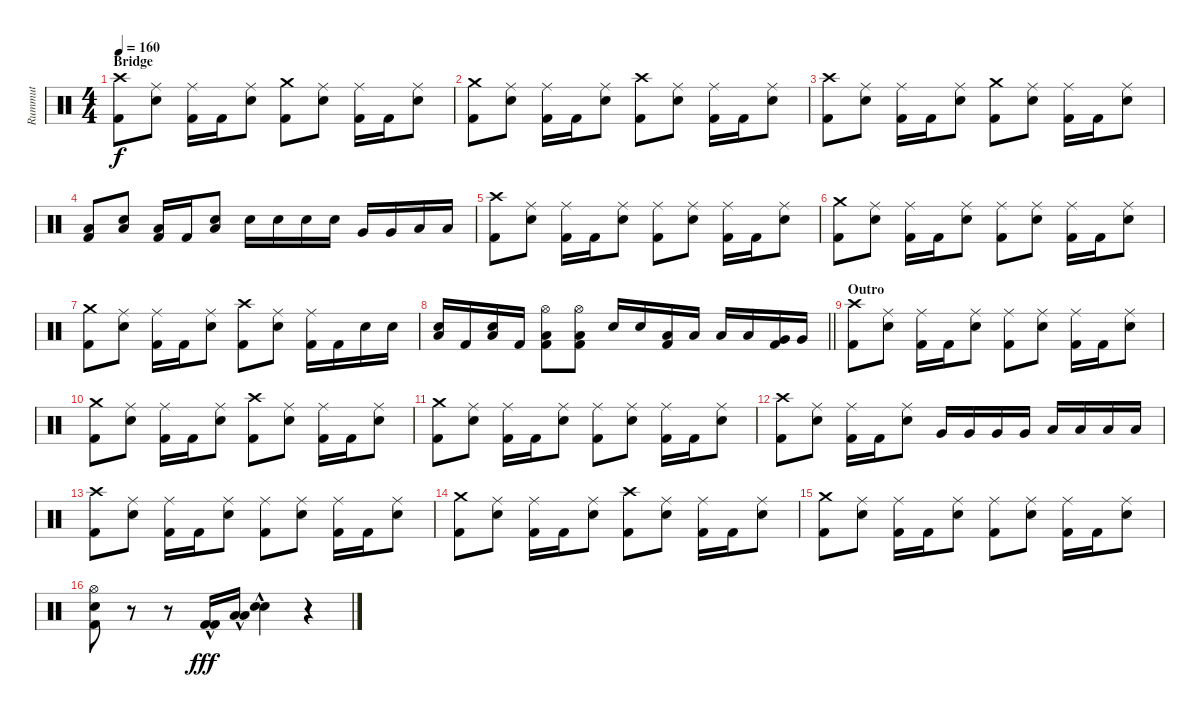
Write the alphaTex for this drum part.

\track ("Rummut" "Rummut") {instrument percussion}
\staff {score}
\articulation defaults
\ts (4 4)
\section ("" "Bridge")
\tempo 160
\clef neutral
\ks c
("Crash high (hit)" "Kick (hit) 2").8{dy f} ("Ride (middle)" "Snare (hit) 2").8 ("Ride (middle)" "Kick (hit) 2").16 "Kick (hit) 2".16 ("Ride (middle)" "Snare (hit) 2").8 ("Crash medium (hit)" "Kick (hit) 2").8 ("Ride (middle)" "Snare (hit) 2").8 ("Ride (middle)" "Kick (hit) 2").16 "Kick (hit) 2".16 ("Ride (middle)" "Snare (hit) 2").8 |
("Crash medium (hit)" "Kick (hit) 2").8 ("Ride (middle)" "Snare (hit) 2").8 ("Ride (middle)" "Kick (hit) 2").16 "Kick (hit) 2".16 ("Ride (middle)" "Snare (hit) 2").8 ("Crash high (hit)" "Kick (hit) 2").8 ("Ride (middle)" "Snare (hit) 2").8 ("Ride (middle)" "Kick (hit) 2").16 "Kick (hit) 2".16 ("Ride (middle)" "Snare (hit) 2").8 |
("Crash high (hit)" "Kick (hit) 2").8 ("Ride (middle)" "Snare (hit) 2").8 ("Ride (middle)" "Kick (hit) 2").16 "Kick (hit) 2".16 ("Ride (middle)" "Snare (hit) 2").8 ("Crash medium (hit)" "Kick (hit) 2").8 ("Ride (middle)" "Snare (hit) 2").8 ("Ride (middle)" "Kick (hit) 2").16 "Kick (hit) 2".16 ("Ride (middle)" "Snare (hit) 2").8 |
("Low Floor Tom (hit)" "Kick (hit) 2").8 ("Low Floor Tom (hit)" "Snare (hit) 2").8 ("Low Floor Tom (hit)" "Kick (hit) 2").16 "Kick (hit) 2".16 ("Low Floor Tom (hit)" "Snare (hit) 2").8 "Snare (hit) 2".16 "Snare (hit) 2".16 "Snare (hit) 2".16 "Snare (hit) 2".16 "Very Low Tom (hit)".16 "Very Low Tom (hit)".16 "Low Floor Tom (hit)".16 "Low Floor Tom (hit)".16 |
("Crash high (hit)" "Kick (hit) 2").8 ("Ride (middle)" "Snare (hit) 2").8 ("Ride (middle)" "Kick (hit) 2").16 "Kick (hit) 2".16 ("Ride (middle)" "Snare (hit) 2").8 ("Ride (middle)" "Kick (hit) 2").8 ("Ride (middle)" "Snare (hit) 2").8 ("Ride (middle)" "Kick (hit) 2").16 "Kick (hit) 2".16 ("Ride (middle)" "Snare (hit) 2").8 |
("Crash medium (hit)" "Kick (hit) 2").8 ("Ride (middle)" "Snare (hit) 2").8 ("Ride (middle)" "Kick (hit) 2").16 "Kick (hit) 2".16 ("Ride (middle)" "Snare (hit) 2").8 ("Ride (middle)" "Kick (hit) 2").8 ("Ride (middle)" "Snare (hit) 2").8 ("Ride (middle)" "Kick (hit) 2").16 "Kick (hit) 2".16 ("Ride (middle)" "Snare (hit) 2").8 |
("Crash medium (hit)" "Kick (hit) 2").8 ("Ride (middle)" "Snare (hit) 2").8 ("Ride (middle)" "Kick (hit) 2").16 "Kick (hit) 2".16 ("Ride (middle)" "Snare (hit) 2").8 ("Crash high (hit)" "Kick (hit) 2").8 ("Ride (middle)" "Snare (hit) 2").8 ("Ride (middle)" "Kick (hit) 2").16 "Kick (hit) 2".16 "Snare (hit) 2".16 "Snare (hit) 2".16 |
\barLineRight lightlight
("Snare (hit) 2" "Low Floor Tom (hit)").16 "Kick (hit) 2".16 ("Snare (hit) 2" "Low Floor Tom (hit)").16 "Kick (hit) 2".16 ("Hi-Hat (open)" "Low Floor Tom (hit)" "Kick (hit) 2").8 ("Hi-Hat (open)" "Low Floor Tom (hit)" "Kick (hit) 2").8 "Snare (hit) 2".16 "Snare (hit) 2".16 ("Low Tom (hit)" "Kick (hit) 2").16 "Low Tom (hit)".16 "Low Tom (hit)".16 "Low Tom (hit)".16 ("Very Low Tom (hit)" "Kick (hit) 2").16 "Very Low Tom (hit)".16 |
\section ("" "Outro")
("Crash high (hit)" "Kick (hit) 2").8 ("Ride (middle)" "Snare (hit) 2").8 ("Ride (middle)" "Kick (hit) 2").16 "Kick (hit) 2".16 ("Ride (middle)" "Snare (hit) 2").8 ("Ride (middle)" "Kick (hit) 2").8 ("Ride (middle)" "Snare (hit) 2").8 ("Ride (middle)" "Kick (hit) 2").16 "Kick (hit) 2".16 ("Ride (middle)" "Snare (hit) 2").8 |
("Crash medium (hit)" "Kick (hit) 2").8 ("Ride (middle)" "Snare (hit) 2").8 ("Ride (middle)" "Kick (hit) 2").16 "Kick (hit) 2".16 ("Ride (middle)" "Snare (hit) 2").8 ("Crash high (hit)" "Kick (hit) 2").8 ("Ride (middle)" "Snare (hit) 2").8 ("Ride (middle)" "Kick (hit) 2").16 "Kick (hit) 2".16 ("Ride (middle)" "Snare (hit) 2").8 |
("Crash medium (hit)" "Kick (hit) 2").8 ("Ride (middle)" "Snare (hit) 2").8 ("Ride (middle)" "Kick (hit) 2").16 "Kick (hit) 2".16 ("Ride (middle)" "Snare (hit) 2").8 ("Ride (middle)" "Kick (hit) 2").8 ("Ride (middle)" "Snare (hit) 2").8 ("Ride (middle)" "Kick (hit) 2").16 "Kick (hit) 2".16 ("Ride (middle)" "Snare (hit) 2").8 |
("Crash high (hit)" "Kick (hit) 2").8 ("Ride (middle)" "Snare (hit) 2").8 ("Ride (middle)" "Kick (hit) 2").16 "Kick (hit) 2".16 ("Ride (middle)" "Snare (hit) 2").8 "Very Low Tom (hit)".16 "Very Low Tom (hit)".16 "Very Low Tom (hit)".16 "Very Low Tom (hit)".16 "Low Floor Tom (hit)".16 "Low Floor Tom (hit)".16 "Low Floor Tom (hit)".16 "Low Floor Tom (hit)".16 |
("Crash high (hit)" "Kick (hit) 2").8 ("Ride (middle)" "Snare (hit) 2").8 ("Ride (middle)" "Kick (hit) 2").16 "Kick (hit) 2".16 ("Ride (middle)" "Snare (hit) 2").8 ("Ride (middle)" "Kick (hit) 2").8 ("Ride (middle)" "Snare (hit) 2").8 ("Ride (middle)" "Kick (hit) 2").16 "Kick (hit) 2".16 ("Ride (middle)" "Snare (hit) 2").8 |
("Crash medium (hit)" "Kick (hit) 2").8 ("Ride (middle)" "Snare (hit) 2").8 ("Ride (middle)" "Kick (hit) 2").16 "Kick (hit) 2".16 ("Ride (middle)" "Snare (hit) 2").8 ("Crash high (hit)" "Kick (hit) 2").8 ("Ride (middle)" "Snare (hit) 2").8 ("Ride (middle)" "Kick (hit) 2").16 "Kick (hit) 2".16 ("Ride (middle)" "Snare (hit) 2").8 |
("Crash medium (hit)" "Kick (hit) 2").8 ("Ride (middle)" "Snare (hit) 2").8 ("Ride (middle)" "Kick (hit) 2").16 "Kick (hit) 2".16 ("Ride (middle)" "Snare (hit) 2").8 ("Ride (middle)" "Kick (hit) 2").8 ("Ride (middle)" "Snare (hit) 2").8 ("Ride (middle)" "Kick (hit) 2").16 "Kick (hit) 2".16 ("Ride (middle)" "Snare (hit) 2").8 |
("Hi-Hat (open)" "Kick (hit) 2" "Snare (hit) 2").8 r.8 r.8 ("Kick (hit) 2"{hac} "Kick (hit) 2"{hac}).16{dy fff} ("Low Floor Tom (hit)"{hac} "Low Floor Tom (hit)"{hac}).16 ("Snare (hit) 2"{hac} "Snare (hit) 2"{hac}).4 r.4
